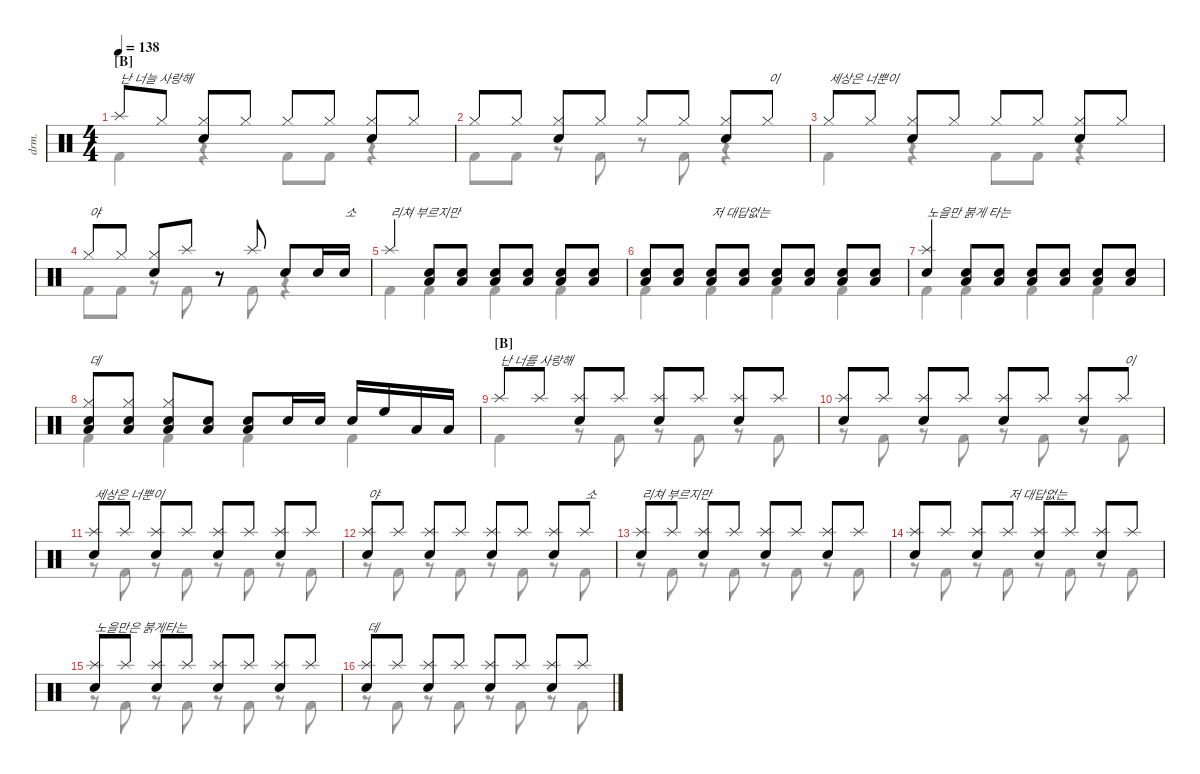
\defaultSystemsLayout 4
\hideDynamics
\bracketExtendMode nobrackets
\track ("Drumkit" "drm.") {instrument percussion}
\staff {score}
\articulation defaults
\voice
\ts (4 4)
\section ("B" "")
\tempo 138
\clef neutral
\ks c "Splash (hit)".8{txt "난 너늘 사랑해" dy mf} "Hi-Hat (closed)".8
("Hi-Hat (closed)" "Snare (hit) 2").8 "Hi-Hat (closed)".8 "Hi-Hat (closed)".8 "Hi-Hat (closed)".8 ("Hi-Hat (closed)" "Snare (hit) 2").8 "Hi-Hat (closed)".8 |
"Hi-Hat (closed)".8 "Hi-Hat (closed)".8 ("Hi-Hat (closed)" "Snare (hit) 2").8 "Hi-Hat (closed)".8 "Hi-Hat (closed)".8 "Hi-Hat (closed)".8 ("Hi-Hat (closed)" "Snare (hit) 2").8 "Hi-Hat (closed)".8{txt "이"} |
"Hi-Hat (closed)".8{txt "세상은 너뿐이"} "Hi-Hat (closed)".8 ("Hi-Hat (closed)" "Snare (hit) 2").8 "Hi-Hat (closed)".8 "Hi-Hat (closed)".8 "Hi-Hat (closed)".8 ("Hi-Hat (closed)" "Snare (hit) 2").8 "Hi-Hat (closed)".8 |
"Hi-Hat (closed)".8{txt "야"} "Hi-Hat (closed)".8 ("Hi-Hat (closed)" "Snare (hit) 2").8 "Splash (hit)".8 r.8 "Splash (hit)".8 "Snare (hit) 2".8 "Snare (hit) 2".16 "Snare (hit) 2".16{txt "소"} |
"Splash (hit)".4{txt "리쳐 부르지만"} ("Snare (hit) 2" "Low Tom (hit)").8 ("Snare (hit) 2" "Low Tom (hit)").8 ("Snare (hit) 2" "Low Tom (hit)").8 ("Snare (hit) 2" "Low Tom (hit)").8 ("Snare (hit) 2" "Low Tom (hit)").8 ("Snare (hit) 2" "Low Tom (hit)").8 |
("Low Tom (hit)" "Snare (hit) 2").8 ("Low Tom (hit)" "Snare (hit) 2").8 ("Snare (hit) 2" "Low Tom (hit)").8{txt "저 대답없는"} ("Low Tom (hit)" "Snare (hit) 2").8 ("Low Tom (hit)" "Snare (hit) 2").8 ("Snare (hit) 2" "Low Tom (hit)").8 ("Snare (hit) 2" "Low Tom (hit)").8 ("Snare (hit) 2" "Low Tom (hit)").8 |
("Splash (hit)" "Snare (hit) 2").4{txt "노을만 붉게 타는"} ("Snare (hit) 2" "Low Tom (hit)").8 ("Snare (hit) 2" "Low Tom (hit)").8 ("Snare (hit) 2" "Low Tom (hit)").8 ("Snare (hit) 2" "Low Tom (hit)").8 ("Snare (hit) 2" "Low Tom (hit)").8 ("Snare (hit) 2" "Low Tom (hit)").8 |
("Hi-Hat (closed)" "Snare (hit) 2" "Low Tom (hit)").8{txt "데"} ("Hi-Hat (closed)" "Snare (hit) 2" "Low Tom (hit)").8 ("Hi-Hat (closed)" "Snare (hit) 2" "Low Tom (hit)").8 ("Snare (hit) 2" "Low Tom (hit)").8 ("Snare (hit) 2" "Low Tom (hit)").8 "Snare (hit) 2".16 "Snare (hit) 2".16 "Snare (hit) 2".16 "High Floor Tom (hit)".16 "Low Tom (hit)".16 "Low Tom (hit)".16 |
\section ("B" "")
"Splash (hit)".8{txt "난 너를 사랑해"} "Splash (hit)".8 ("Splash (hit)" "Snare (hit) 2").8 "Splash (hit)".8 ("Splash (hit)" "Snare (hit) 2").8 "Splash (hit)".8 ("Splash (hit)" "Snare (hit) 2").8 "Splash (hit)".8 |
("Splash (hit)" "Snare (hit) 2").8 "Splash (hit)".8 ("Splash (hit)" "Snare (hit) 2").8 "Splash (hit)".8 ("Splash (hit)" "Snare (hit) 2").8 "Splash (hit)".8 ("Splash (hit)" "Snare (hit) 2").8 "Splash (hit)".8{txt "이"} |
("Splash (hit)" "Snare (hit) 2").8{txt "세상은 너뿐이"} "Splash (hit)".8 ("Splash (hit)" "Snare (hit) 2").8 "Splash (hit)".8 ("Splash (hit)" "Snare (hit) 2").8 "Splash (hit)".8 ("Splash (hit)" "Snare (hit) 2").8 "Splash (hit)".8 |
("Splash (hit)" "Snare (hit) 2").8{txt "야"} "Splash (hit)".8 ("Splash (hit)" "Snare (hit) 2").8 "Splash (hit)".8 ("Splash (hit)" "Snare (hit) 2").8 "Splash (hit)".8 ("Splash (hit)" "Snare (hit) 2").8 "Splash (hit)".8{txt "소"} |
("Splash (hit)" "Snare (hit) 2").8{txt "리쳐 부르지만"} "Splash (hit)".8 ("Splash (hit)" "Snare (hit) 2").8 "Splash (hit)".8 ("Splash (hit)" "Snare (hit) 2").8 "Splash (hit)".8 ("Splash (hit)" "Snare (hit) 2").8 "Splash (hit)".8 |
("Splash (hit)" "Snare (hit) 2").8 "Splash (hit)".8 ("Splash (hit)" "Snare (hit) 2").8 "Splash (hit)".8{txt "저 대답없는"} ("Splash (hit)" "Snare (hit) 2").8 "Splash (hit)".8 ("Splash (hit)" "Snare (hit) 2").8 "Splash (hit)".8 |
("Splash (hit)" "Snare (hit) 2").8{txt "노을만은 붉게타는"} "Splash (hit)".8 ("Splash (hit)" "Snare (hit) 2").8 "Splash (hit)".8 ("Splash (hit)" "Snare (hit) 2").8 "Splash (hit)".8 ("Splash (hit)" "Snare (hit) 2").8 "Splash (hit)".8 |
("Splash (hit)" "Snare (hit) 2").8{txt "데"} "Splash (hit)".8 ("Splash (hit)" "Snare (hit) 2").8 "Splash (hit)".8 ("Splash (hit)" "Snare (hit) 2").8 "Splash (hit)".8 ("Splash (hit)" "Snare (hit) 2").8 "Splash (hit)".8
\voice
\clef neutral
\ottava regular
\simile none
\ks c
|
|
|
|
|
|
|
|
|
|
|
|
|
|
|
\voice
\clef neutral
\ottava regular
\simile none
\ks c "Kick (hit) 2".4{dy mf}
r.4 "Kick (hit) 2".8 "Kick (hit) 2".8 r.4 |
"Kick (hit) 2".8 "Kick (hit) 2".8 r.8 "Kick (hit) 2".8 r.8 "Kick (hit) 2".8 r.4 |
"Kick (hit) 2".4 r.4 "Kick (hit) 2".8 "Kick (hit) 2".8 r.4 |
"Kick (hit) 2".8 "Kick (hit) 2".8 r.8 "Kick (hit) 2".8 r.8 "Kick (hit) 2".8 r.4 |
"Kick (hit) 2".4 "Kick (hit) 2".4 "Kick (hit) 2".4 "Kick (hit) 2".4 |
"Kick (hit) 2".4 "Kick (hit) 2".4 "Kick (hit) 2".4 "Kick (hit) 2".4 |
"Kick (hit) 2".4 "Kick (hit) 2".4 "Kick (hit) 2".4 "Kick (hit) 2".4 |
"Kick (hit) 2".4 "Kick (hit) 2".4 "Kick (hit) 2".4 "Kick (hit) 2".4 |
"Kick (hit) 2".4 r.8 "Kick (hit) 2".8 r.8 "Kick (hit) 2".8 r.8 "Kick (hit) 2".8 |
r.8 "Kick (hit) 2".8 r.8 "Kick (hit) 2".8 r.8 "Kick (hit) 2".8 r.8 "Kick (hit) 2".8 |
r.8 "Kick (hit) 2".8 r.8 "Kick (hit) 2".8 r.8 "Kick (hit) 2".8 r.8 "Kick (hit) 2".8 |
r.8 "Kick (hit) 2".8 r.8 "Kick (hit) 2".8 r.8 "Kick (hit) 2".8 r.8 "Kick (hit) 2".8 |
r.8 "Kick (hit) 2".8 r.8 "Kick (hit) 2".8 r.8 "Kick (hit) 2".8 r.8 "Kick (hit) 2".8 |
r.8 "Kick (hit) 2".8 r.8 "Kick (hit) 2".8 r.8 "Kick (hit) 2".8 r.8 "Kick (hit) 2".8 |
r.8 "Kick (hit) 2".8 r.8 "Kick (hit) 2".8 r.8 "Kick (hit) 2".8 r.8 "Kick (hit) 2".8 |
r.8 "Kick (hit) 2".8 r.8 "Kick (hit) 2".8 r.8 "Kick (hit) 2".8 r.8 "Kick (hit) 2".8
